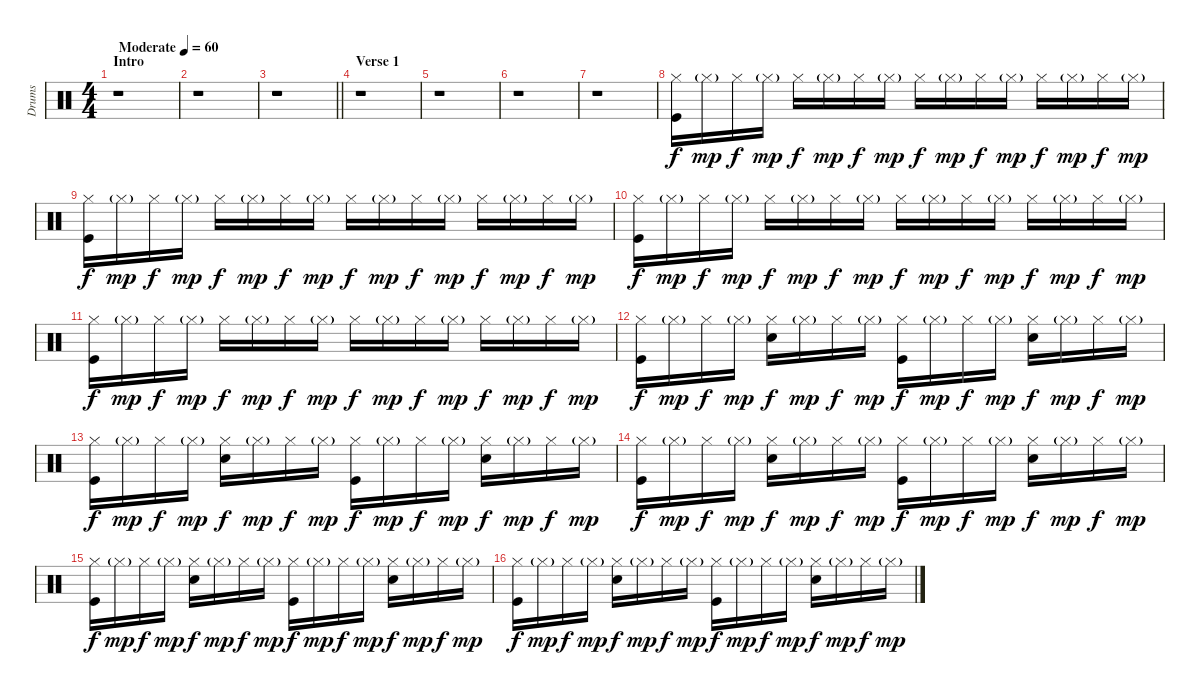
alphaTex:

\track ("Drums" "Drums") {instrument percussion}
\staff {score}
\articulation defaults
\ts (4 4)
\section ("" "Intro")
\tempo (60 "Moderate")
\clef neutral
\ks c
r.1{dy f} |
r.1 |
\barLineRight lightlight
r.1 |
\section ("" "Verse 1")
r.1 |
r.1 |
r.1 |
r.1 |
("Hi-Hat (closed)" "Kick (hit)").16 "Hi-Hat (closed)"{g}.16{dy mp} "Hi-Hat (closed)".16{dy f} "Hi-Hat (closed)"{g}.16{dy mp} "Hi-Hat (closed)".16{dy f} "Hi-Hat (closed)"{g}.16{dy mp} "Hi-Hat (closed)".16{dy f} "Hi-Hat (closed)"{g}.16{dy mp} "Hi-Hat (closed)".16{dy f} "Hi-Hat (closed)"{g}.16{dy mp} "Hi-Hat (closed)".16{dy f} "Hi-Hat (closed)"{g}.16{dy mp} "Hi-Hat (closed)".16{dy f} "Hi-Hat (closed)"{g}.16{dy mp} "Hi-Hat (closed)".16{dy f} "Hi-Hat (closed)"{g}.16{dy mp} |
("Hi-Hat (closed)" "Kick (hit)").16{dy f} "Hi-Hat (closed)"{g}.16{dy mp} "Hi-Hat (closed)".16{dy f} "Hi-Hat (closed)"{g}.16{dy mp} "Hi-Hat (closed)".16{dy f} "Hi-Hat (closed)"{g}.16{dy mp} "Hi-Hat (closed)".16{dy f} "Hi-Hat (closed)"{g}.16{dy mp} "Hi-Hat (closed)".16{dy f} "Hi-Hat (closed)"{g}.16{dy mp} "Hi-Hat (closed)".16{dy f} "Hi-Hat (closed)"{g}.16{dy mp} "Hi-Hat (closed)".16{dy f} "Hi-Hat (closed)"{g}.16{dy mp} "Hi-Hat (closed)".16{dy f} "Hi-Hat (closed)"{g}.16{dy mp} |
("Hi-Hat (closed)" "Kick (hit)").16{dy f} "Hi-Hat (closed)"{g}.16{dy mp} "Hi-Hat (closed)".16{dy f} "Hi-Hat (closed)"{g}.16{dy mp} "Hi-Hat (closed)".16{dy f} "Hi-Hat (closed)"{g}.16{dy mp} "Hi-Hat (closed)".16{dy f} "Hi-Hat (closed)"{g}.16{dy mp} "Hi-Hat (closed)".16{dy f} "Hi-Hat (closed)"{g}.16{dy mp} "Hi-Hat (closed)".16{dy f} "Hi-Hat (closed)"{g}.16{dy mp} "Hi-Hat (closed)".16{dy f} "Hi-Hat (closed)"{g}.16{dy mp} "Hi-Hat (closed)".16{dy f} "Hi-Hat (closed)"{g}.16{dy mp} |
("Hi-Hat (closed)" "Kick (hit)").16{dy f} "Hi-Hat (closed)"{g}.16{dy mp} "Hi-Hat (closed)".16{dy f} "Hi-Hat (closed)"{g}.16{dy mp} "Hi-Hat (closed)".16{dy f} "Hi-Hat (closed)"{g}.16{dy mp} "Hi-Hat (closed)".16{dy f} "Hi-Hat (closed)"{g}.16{dy mp} "Hi-Hat (closed)".16{dy f} "Hi-Hat (closed)"{g}.16{dy mp} "Hi-Hat (closed)".16{dy f} "Hi-Hat (closed)"{g}.16{dy mp} "Hi-Hat (closed)".16{dy f} "Hi-Hat (closed)"{g}.16{dy mp} "Hi-Hat (closed)".16{dy f} "Hi-Hat (closed)"{g}.16{dy mp} |
("Hi-Hat (closed)" "Kick (hit)").16{dy f} "Hi-Hat (closed)"{g}.16{dy mp} "Hi-Hat (closed)".16{dy f} "Hi-Hat (closed)"{g}.16{dy mp} ("Hi-Hat (closed)" "Snare (hit) 2").16{dy f} "Hi-Hat (closed)"{g}.16{dy mp} "Hi-Hat (closed)".16{dy f} "Hi-Hat (closed)"{g}.16{dy mp} ("Hi-Hat (closed)" "Kick (hit)").16{dy f} "Hi-Hat (closed)"{g}.16{dy mp} "Hi-Hat (closed)".16{dy f} "Hi-Hat (closed)"{g}.16{dy mp} ("Hi-Hat (closed)" "Snare (hit) 2").16{dy f} "Hi-Hat (closed)"{g}.16{dy mp} "Hi-Hat (closed)".16{dy f} "Hi-Hat (closed)"{g}.16{dy mp} |
("Hi-Hat (closed)" "Kick (hit)").16{dy f} "Hi-Hat (closed)"{g}.16{dy mp} "Hi-Hat (closed)".16{dy f} "Hi-Hat (closed)"{g}.16{dy mp} ("Hi-Hat (closed)" "Snare (hit) 2").16{dy f} "Hi-Hat (closed)"{g}.16{dy mp} "Hi-Hat (closed)".16{dy f} "Hi-Hat (closed)"{g}.16{dy mp} ("Hi-Hat (closed)" "Kick (hit)").16{dy f} "Hi-Hat (closed)"{g}.16{dy mp} "Hi-Hat (closed)".16{dy f} "Hi-Hat (closed)"{g}.16{dy mp} ("Hi-Hat (closed)" "Snare (hit) 2").16{dy f} "Hi-Hat (closed)"{g}.16{dy mp} "Hi-Hat (closed)".16{dy f} "Hi-Hat (closed)"{g}.16{dy mp} |
("Hi-Hat (closed)" "Kick (hit)").16{dy f} "Hi-Hat (closed)"{g}.16{dy mp} "Hi-Hat (closed)".16{dy f} "Hi-Hat (closed)"{g}.16{dy mp} ("Hi-Hat (closed)" "Snare (hit) 2").16{dy f} "Hi-Hat (closed)"{g}.16{dy mp} "Hi-Hat (closed)".16{dy f} "Hi-Hat (closed)"{g}.16{dy mp} ("Hi-Hat (closed)" "Kick (hit)").16{dy f} "Hi-Hat (closed)"{g}.16{dy mp} "Hi-Hat (closed)".16{dy f} "Hi-Hat (closed)"{g}.16{dy mp} ("Hi-Hat (closed)" "Snare (hit) 2").16{dy f} "Hi-Hat (closed)"{g}.16{dy mp} "Hi-Hat (closed)".16{dy f} "Hi-Hat (closed)"{g}.16{dy mp} |
("Hi-Hat (closed)" "Kick (hit)").16{dy f} "Hi-Hat (closed)"{g}.16{dy mp} "Hi-Hat (closed)".16{dy f} "Hi-Hat (closed)"{g}.16{dy mp} ("Hi-Hat (closed)" "Snare (hit) 2").16{dy f} "Hi-Hat (closed)"{g}.16{dy mp} "Hi-Hat (closed)".16{dy f} "Hi-Hat (closed)"{g}.16{dy mp} ("Hi-Hat (closed)" "Kick (hit)").16{dy f} "Hi-Hat (closed)"{g}.16{dy mp} "Hi-Hat (closed)".16{dy f} "Hi-Hat (closed)"{g}.16{dy mp} ("Hi-Hat (closed)" "Snare (hit) 2").16{dy f} "Hi-Hat (closed)"{g}.16{dy mp} "Hi-Hat (closed)".16{dy f} "Hi-Hat (closed)"{g}.16{dy mp} |
("Hi-Hat (closed)" "Kick (hit)").16{dy f} "Hi-Hat (closed)"{g}.16{dy mp} "Hi-Hat (closed)".16{dy f} "Hi-Hat (closed)"{g}.16{dy mp} ("Hi-Hat (closed)" "Snare (hit) 2").16{dy f} "Hi-Hat (closed)"{g}.16{dy mp} "Hi-Hat (closed)".16{dy f} "Hi-Hat (closed)"{g}.16{dy mp} ("Hi-Hat (closed)" "Kick (hit)").16{dy f} "Hi-Hat (closed)"{g}.16{dy mp} "Hi-Hat (closed)".16{dy f} "Hi-Hat (closed)"{g}.16{dy mp} ("Hi-Hat (closed)" "Snare (hit) 2").16{dy f} "Hi-Hat (closed)"{g}.16{dy mp} "Hi-Hat (closed)".16{dy f} "Hi-Hat (closed)"{g}.16{dy mp}
